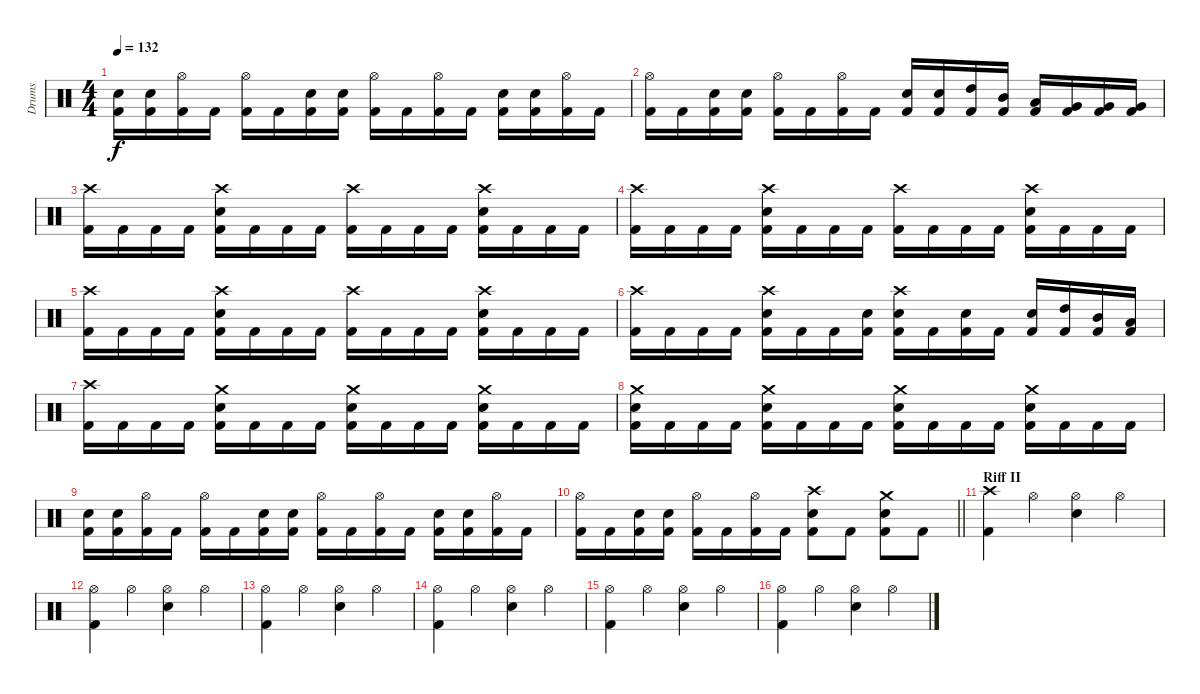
\track ("Drums" "Drums") {instrument percussion}
\staff {score}
\articulation defaults
\ts (4 4)
\tempo 132
\clef neutral
\ks c
("Snare (hit) 2" "Kick (hit) 2").16{dy f} ("Snare (hit) 2" "Kick (hit) 2").16 ("Hi-Hat (open)" "Kick (hit) 2").16 "Kick (hit) 2".16 ("Hi-Hat (open)" "Kick (hit) 2").16 "Kick (hit) 2".16 ("Snare (hit) 2" "Kick (hit) 2").16 ("Snare (hit) 2" "Kick (hit) 2").16 ("Hi-Hat (open)" "Kick (hit) 2").16 "Kick (hit) 2".16 ("Hi-Hat (open)" "Kick (hit) 2").16 "Kick (hit) 2".16 ("Snare (hit) 2" "Kick (hit) 2").16 ("Snare (hit) 2" "Kick (hit) 2").16 ("Hi-Hat (open)" "Kick (hit) 2").16 "Kick (hit) 2".16 |
("Hi-Hat (open)" "Kick (hit) 2").16 "Kick (hit) 2".16 ("Snare (hit) 2" "Kick (hit) 2").16 ("Snare (hit) 2" "Kick (hit) 2").16 ("Hi-Hat (open)" "Kick (hit) 2").16 "Kick (hit) 2".16 ("Hi-Hat (open)" "Kick (hit) 2").16 "Kick (hit) 2".16 ("Snare (hit) 2" "Kick (hit) 2").16 ("Snare (hit) 2" "Kick (hit) 2").16 ("High Tom (hit)" "Kick (hit) 2").16 ("Mid Tom (hit)" "Kick (hit) 2").16 ("Low Tom (hit)" "Kick (hit) 2").16 ("Very Low Tom (hit)" "Kick (hit) 2").16 ("Very Low Tom (hit)" "Kick (hit) 2").16 ("Very Low Tom (hit)" "Kick (hit) 2").16 |
("Crash high (hit)" "Kick (hit) 2").16 "Kick (hit) 2".16 "Kick (hit) 2".16 "Kick (hit) 2".16 ("Crash high (hit)" "Snare (hit) 2" "Kick (hit) 2").16 "Kick (hit) 2".16 "Kick (hit) 2".16 "Kick (hit) 2".16 ("Crash high (hit)" "Kick (hit) 2").16 "Kick (hit) 2".16 "Kick (hit) 2".16 "Kick (hit) 2".16 ("Crash high (hit)" "Snare (hit) 2" "Kick (hit) 2").16 "Kick (hit) 2".16 "Kick (hit) 2".16 "Kick (hit) 2".16 |
("Crash high (hit)" "Kick (hit) 2").16 "Kick (hit) 2".16 "Kick (hit) 2".16 "Kick (hit) 2".16 ("Crash high (hit)" "Snare (hit) 2" "Kick (hit) 2").16 "Kick (hit) 2".16 "Kick (hit) 2".16 "Kick (hit) 2".16 ("Crash high (hit)" "Kick (hit) 2").16 "Kick (hit) 2".16 "Kick (hit) 2".16 "Kick (hit) 2".16 ("Crash high (hit)" "Snare (hit) 2" "Kick (hit) 2").16 "Kick (hit) 2".16 "Kick (hit) 2".16 "Kick (hit) 2".16 |
("Crash high (hit)" "Kick (hit) 2").16 "Kick (hit) 2".16 "Kick (hit) 2".16 "Kick (hit) 2".16 ("Crash high (hit)" "Snare (hit) 2" "Kick (hit) 2").16 "Kick (hit) 2".16 "Kick (hit) 2".16 "Kick (hit) 2".16 ("Crash high (hit)" "Kick (hit) 2").16 "Kick (hit) 2".16 "Kick (hit) 2".16 "Kick (hit) 2".16 ("Crash high (hit)" "Snare (hit) 2" "Kick (hit) 2").16 "Kick (hit) 2".16 "Kick (hit) 2".16 "Kick (hit) 2".16 |
("Crash high (hit)" "Kick (hit) 2").16 "Kick (hit) 2".16 "Kick (hit) 2".16 "Kick (hit) 2".16 ("Crash high (hit)" "Snare (hit) 2" "Kick (hit) 2").16 "Kick (hit) 2".16 "Kick (hit) 2".16 ("Snare (hit) 2" "Kick (hit) 2").16 ("Crash high (hit)" "Snare (hit) 2" "Kick (hit) 2").16 "Kick (hit) 2".16 ("Snare (hit) 2" "Kick (hit) 2").16 "Kick (hit) 2".16 ("Snare (hit) 2" "Kick (hit) 2").16 ("High Tom (hit)" "Kick (hit) 2").16 ("Mid Tom (hit)" "Kick (hit) 2").16 ("Low Tom (hit)" "Kick (hit) 2").16 |
("Crash high (hit)" "Kick (hit) 2").16 "Kick (hit) 2".16 "Kick (hit) 2".16 "Kick (hit) 2".16 ("Crash medium (hit)" "Snare (hit) 2" "Kick (hit) 2").16 "Kick (hit) 2".16 "Kick (hit) 2".16 "Kick (hit) 2".16 ("Crash medium (hit)" "Snare (hit) 2" "Kick (hit) 2").16 "Kick (hit) 2".16 "Kick (hit) 2".16 "Kick (hit) 2".16 ("Crash medium (hit)" "Snare (hit) 2" "Kick (hit) 2").16 "Kick (hit) 2".16 "Kick (hit) 2".16 "Kick (hit) 2".16 |
("Crash medium (hit)" "Snare (hit) 2" "Kick (hit) 2").16 "Kick (hit) 2".16 "Kick (hit) 2".16 "Kick (hit) 2".16 ("Crash medium (hit)" "Snare (hit) 2" "Kick (hit) 2").16 "Kick (hit) 2".16 "Kick (hit) 2".16 "Kick (hit) 2".16 ("Crash medium (hit)" "Snare (hit) 2" "Kick (hit) 2").16 "Kick (hit) 2".16 "Kick (hit) 2".16 "Kick (hit) 2".16 ("Crash medium (hit)" "Snare (hit) 2" "Kick (hit) 2").16 "Kick (hit) 2".16 "Kick (hit) 2".16 "Kick (hit) 2".16 |
("Snare (hit) 2" "Kick (hit) 2").16 ("Snare (hit) 2" "Kick (hit) 2").16 ("Hi-Hat (open)" "Kick (hit) 2").16 "Kick (hit) 2".16 ("Hi-Hat (open)" "Kick (hit) 2").16 "Kick (hit) 2".16 ("Snare (hit) 2" "Kick (hit) 2").16 ("Snare (hit) 2" "Kick (hit) 2").16 ("Hi-Hat (open)" "Kick (hit) 2").16 "Kick (hit) 2".16 ("Hi-Hat (open)" "Kick (hit) 2").16 "Kick (hit) 2".16 ("Snare (hit) 2" "Kick (hit) 2").16 ("Snare (hit) 2" "Kick (hit) 2").16 ("Hi-Hat (open)" "Kick (hit) 2").16 "Kick (hit) 2".16 |
\barLineRight lightlight
("Hi-Hat (open)" "Kick (hit) 2").16 "Kick (hit) 2".16 ("Snare (hit) 2" "Kick (hit) 2").16 ("Snare (hit) 2" "Kick (hit) 2").16 ("Hi-Hat (open)" "Kick (hit) 2").16 "Kick (hit) 2".16 ("Hi-Hat (open)" "Kick (hit) 2").16 "Kick (hit) 2".16 ("Crash high (hit)" "Snare (hit) 2" "Kick (hit) 2").8 "Kick (hit) 2".8 ("Crash medium (hit)" "Snare (hit) 2" "Kick (hit) 2").8 "Kick (hit) 2".8 |
\section ("" "Riff II")
("Crash high (hit)" "Kick (hit) 2").4 "Hi-Hat (open)".4 ("Hi-Hat (open)" "Snare (hit) 2").4 "Hi-Hat (open)".4 |
("Hi-Hat (open)" "Kick (hit) 2").4 "Hi-Hat (open)".4 ("Hi-Hat (open)" "Snare (hit) 2").4 "Hi-Hat (open)".4 |
("Hi-Hat (open)" "Kick (hit) 2").4 "Hi-Hat (open)".4 ("Hi-Hat (open)" "Snare (hit) 2").4 "Hi-Hat (open)".4 |
("Hi-Hat (open)" "Kick (hit) 2").4 "Hi-Hat (open)".4 ("Hi-Hat (open)" "Snare (hit) 2").4 "Hi-Hat (open)".4 |
("Hi-Hat (open)" "Kick (hit) 2").4 "Hi-Hat (open)".4 ("Hi-Hat (open)" "Snare (hit) 2").4 "Hi-Hat (open)".4 |
("Hi-Hat (open)" "Kick (hit) 2").4 "Hi-Hat (open)".4 ("Hi-Hat (open)" "Snare (hit) 2").4 "Hi-Hat (open)".4
